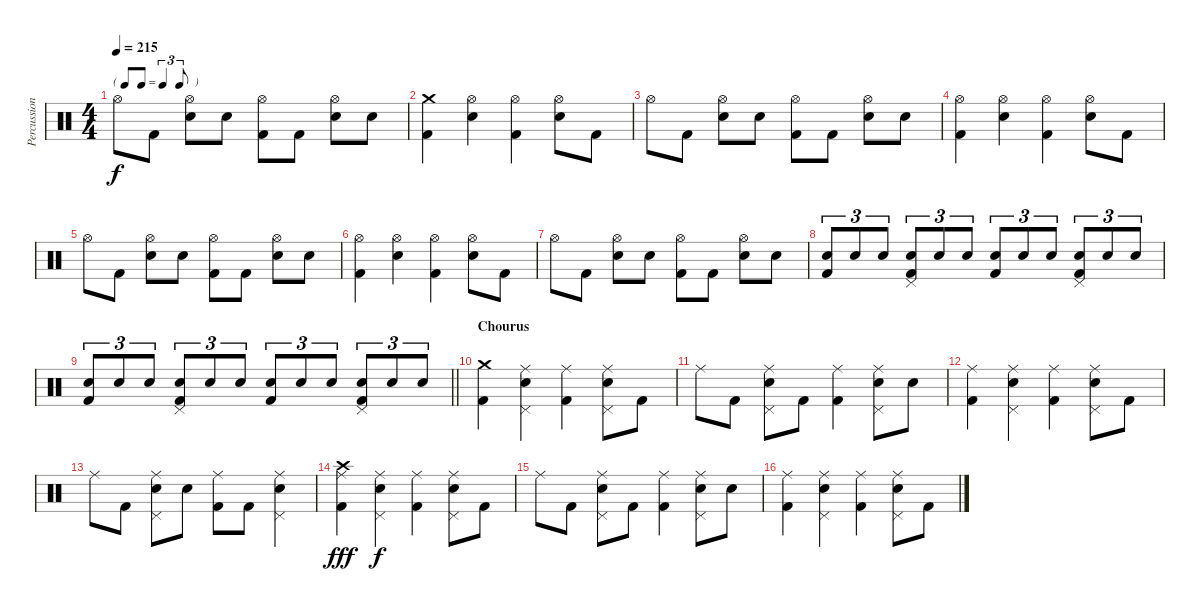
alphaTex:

\track ("Percussion" "Percussion") {instrument percussion}
\staff {score}
\articulation defaults
\ts (4 4)
\tf triplet8th
\tempo 215
\clef neutral
\ks c "Hi-Hat (open)".8{dy f} "Kick (hit) 2".8
("Hi-Hat (open)" "Snare (hit) 2").8 "Snare (hit) 2".8 ("Hi-Hat (open)" "Kick (hit) 2").8 "Kick (hit) 2".8 ("Hi-Hat (open)" "Snare (hit) 2").8 "Snare (hit) 2".8 |
("Crash medium (hit)" "Kick (hit) 2").4 ("Hi-Hat (open)" "Snare (hit) 2").4 ("Hi-Hat (open)" "Kick (hit) 2").4 ("Hi-Hat (open)" "Snare (hit) 2").8 "Kick (hit) 2".8 |
"Hi-Hat (open)".8 "Kick (hit) 2".8 ("Hi-Hat (open)" "Snare (hit) 2").8 "Snare (hit) 2".8 ("Hi-Hat (open)" "Kick (hit) 2").8 "Kick (hit) 2".8 ("Hi-Hat (open)" "Snare (hit) 2").8 "Snare (hit) 2".8 |
("Hi-Hat (open)" "Kick (hit) 2").4 ("Hi-Hat (open)" "Snare (hit) 2").4 ("Hi-Hat (open)" "Kick (hit) 2").4 ("Hi-Hat (open)" "Snare (hit) 2").8 "Kick (hit) 2".8 |
"Hi-Hat (open)".8 "Kick (hit) 2".8 ("Hi-Hat (open)" "Snare (hit) 2").8 "Snare (hit) 2".8 ("Hi-Hat (open)" "Kick (hit) 2").8 "Kick (hit) 2".8 ("Hi-Hat (open)" "Snare (hit) 2").8 "Snare (hit) 2".8 |
("Hi-Hat (open)" "Kick (hit) 2").4 ("Hi-Hat (open)" "Snare (hit) 2").4 ("Hi-Hat (open)" "Kick (hit) 2").4 ("Hi-Hat (open)" "Snare (hit) 2").8 "Kick (hit) 2".8 |
"Hi-Hat (open)".8 "Kick (hit) 2".8 ("Hi-Hat (open)" "Snare (hit) 2").8 "Snare (hit) 2".8 ("Hi-Hat (open)" "Kick (hit) 2").8 "Kick (hit) 2".8 ("Hi-Hat (open)" "Snare (hit) 2").8 "Snare (hit) 2".8 |
("Snare (hit) 2" "Kick (hit) 2").8{tu (3 2)} "Snare (hit) 2".8{tu (3 2)} "Snare (hit) 2".8{tu (3 2)} ("Snare (hit) 2" "Pedal Hi-Hat (hit)" "Kick (hit) 2").8{tu (3 2)} "Snare (hit) 2".8{tu (3 2)} "Snare (hit) 2".8{tu (3 2)} ("Snare (hit) 2" "Kick (hit) 2").8{tu (3 2)} "Snare (hit) 2".8{tu (3 2)} "Snare (hit) 2".8{tu (3 2)} ("Snare (hit) 2" "Pedal Hi-Hat (hit)" "Kick (hit) 2").8{tu (3 2)} "Snare (hit) 2".8{tu (3 2)} "Snare (hit) 2".8{tu (3 2)} |
\barLineRight lightlight
("Snare (hit) 2" "Kick (hit) 2").8{tu (3 2)} "Snare (hit) 2".8{tu (3 2)} "Snare (hit) 2".8{tu (3 2)} ("Snare (hit) 2" "Pedal Hi-Hat (hit)" "Kick (hit) 2").8{tu (3 2)} "Snare (hit) 2".8{tu (3 2)} "Snare (hit) 2".8{tu (3 2)} ("Snare (hit) 2" "Kick (hit) 2").8{tu (3 2)} "Snare (hit) 2".8{tu (3 2)} "Snare (hit) 2".8{tu (3 2)} ("Snare (hit) 2" "Pedal Hi-Hat (hit)" "Kick (hit) 2").8{tu (3 2)} "Snare (hit) 2".8{tu (3 2)} "Snare (hit) 2".8{tu (3 2)} |
\section ("" "Chourus")
("Crash medium (hit)" "Kick (hit) 2").4 ("Ride (middle)" "Snare (hit) 2" "Pedal Hi-Hat (hit)").4 ("Ride (middle)" "Kick (hit) 2").4 ("Ride (middle)" "Snare (hit) 2" "Pedal Hi-Hat (hit)").8 "Kick (hit) 2".8 |
"Ride (middle)".8 "Kick (hit) 2".8 ("Ride (middle)" "Snare (hit) 2" "Pedal Hi-Hat (hit)").8 "Kick (hit) 2".8 ("Ride (middle)" "Kick (hit) 2").4 ("Ride (middle)" "Snare (hit) 2" "Pedal Hi-Hat (hit)").8 "Snare (hit) 2".8 |
("Ride (middle)" "Kick (hit) 2").4 ("Ride (middle)" "Snare (hit) 2" "Pedal Hi-Hat (hit)").4 ("Ride (middle)" "Kick (hit) 2").4 ("Ride (middle)" "Snare (hit) 2" "Pedal Hi-Hat (hit)").8 "Kick (hit) 2".8 |
"Ride (middle)".8 "Kick (hit) 2".8 ("Ride (middle)" "Snare (hit) 2" "Pedal Hi-Hat (hit)").8 "Snare (hit) 2".8 ("Ride (middle)" "Kick (hit) 2").8 "Kick (hit) 2".8 ("Ride (middle)" "Snare (hit) 2" "Pedal Hi-Hat (hit)").4 |
("Crash high (hit)" "Ride (middle)" "Kick (hit) 2").4{dy fff} ("Ride (middle)" "Snare (hit) 2" "Pedal Hi-Hat (hit)").4{dy f} ("Ride (middle)" "Kick (hit) 2").4 ("Ride (middle)" "Snare (hit) 2" "Pedal Hi-Hat (hit)").8 "Kick (hit) 2".8 |
"Ride (middle)".8 "Kick (hit) 2".8 ("Ride (middle)" "Snare (hit) 2" "Pedal Hi-Hat (hit)").8 "Kick (hit) 2".8 ("Ride (middle)" "Kick (hit) 2").4 ("Ride (middle)" "Snare (hit) 2" "Pedal Hi-Hat (hit)").8 "Snare (hit) 2".8 |
("Ride (middle)" "Kick (hit) 2").4 ("Ride (middle)" "Snare (hit) 2" "Pedal Hi-Hat (hit)").4 ("Ride (middle)" "Kick (hit) 2").4 ("Ride (middle)" "Snare (hit) 2" "Pedal Hi-Hat (hit)").8 "Kick (hit) 2".8
